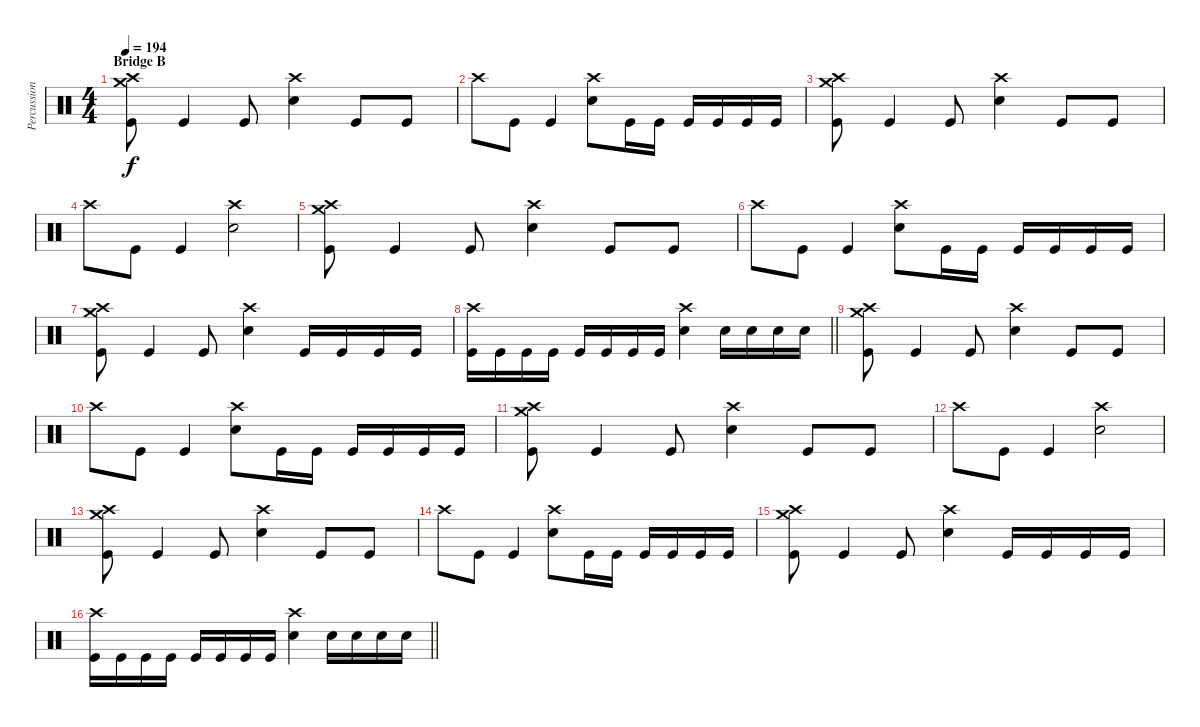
\track ("Percussion" "Percussion") {instrument percussion}
\staff {score}
\articulation defaults
\ts (4 4)
\section ("" "Bridge B")
\tempo 194
\clef neutral
\ks c
("Crash high (hit)" "Crash medium (hit)" "Kick (hit)").8{dy f} "Kick (hit)".4 "Kick (hit)".8 ("Crash high (hit)" "Electric Snare (hit)").4 "Kick (hit)".8 "Kick (hit)".8 |
"Crash high (hit)".8 "Kick (hit)".8 "Kick (hit)".4 ("Crash high (hit)" "Electric Snare (hit)").8 "Kick (hit)".16 "Kick (hit)".16 "Kick (hit)".16 "Kick (hit)".16 "Kick (hit)".16 "Kick (hit)".16 |
("Crash high (hit)" "Crash medium (hit)" "Kick (hit)").8 "Kick (hit)".4 "Kick (hit)".8 ("Crash high (hit)" "Electric Snare (hit)").4 "Kick (hit)".8 "Kick (hit)".8 |
"Crash high (hit)".8 "Kick (hit)".8 "Kick (hit)".4 ("Crash high (hit)" "Electric Snare (hit)").2 |
("Crash high (hit)" "Crash medium (hit)" "Kick (hit)").8 "Kick (hit)".4 "Kick (hit)".8 ("Crash high (hit)" "Electric Snare (hit)").4 "Kick (hit)".8 "Kick (hit)".8 |
"Crash high (hit)".8 "Kick (hit)".8 "Kick (hit)".4 ("Crash high (hit)" "Electric Snare (hit)").8 "Kick (hit)".16 "Kick (hit)".16 "Kick (hit)".16 "Kick (hit)".16 "Kick (hit)".16 "Kick (hit)".16 |
("Crash high (hit)" "Crash medium (hit)" "Kick (hit)").8 "Kick (hit)".4 "Kick (hit)".8 ("Crash high (hit)" "Electric Snare (hit)").4 "Kick (hit)".16 "Kick (hit)".16 "Kick (hit)".16 "Kick (hit)".16 |
\barLineRight lightlight
("Crash high (hit)" "Kick (hit)").16 "Kick (hit)".16 "Kick (hit)".16 "Kick (hit)".16 "Kick (hit)".16 "Kick (hit)".16 "Kick (hit)".16 "Kick (hit)".16 ("Crash high (hit)" "Electric Snare (hit)").4 "Electric Snare (hit)".16 "Electric Snare (hit)".16 "Electric Snare (hit)".16 "Electric Snare (hit)".16 |
("Crash high (hit)" "Crash medium (hit)" "Kick (hit)").8 "Kick (hit)".4 "Kick (hit)".8 ("Crash high (hit)" "Electric Snare (hit)").4 "Kick (hit)".8 "Kick (hit)".8 |
"Crash high (hit)".8 "Kick (hit)".8 "Kick (hit)".4 ("Crash high (hit)" "Electric Snare (hit)").8 "Kick (hit)".16 "Kick (hit)".16 "Kick (hit)".16 "Kick (hit)".16 "Kick (hit)".16 "Kick (hit)".16 |
("Crash high (hit)" "Crash medium (hit)" "Kick (hit)").8 "Kick (hit)".4 "Kick (hit)".8 ("Crash high (hit)" "Electric Snare (hit)").4 "Kick (hit)".8 "Kick (hit)".8 |
"Crash high (hit)".8 "Kick (hit)".8 "Kick (hit)".4 ("Crash high (hit)" "Electric Snare (hit)").2 |
("Crash high (hit)" "Crash medium (hit)" "Kick (hit)").8 "Kick (hit)".4 "Kick (hit)".8 ("Crash high (hit)" "Electric Snare (hit)").4 "Kick (hit)".8 "Kick (hit)".8 |
"Crash high (hit)".8 "Kick (hit)".8 "Kick (hit)".4 ("Crash high (hit)" "Electric Snare (hit)").8 "Kick (hit)".16 "Kick (hit)".16 "Kick (hit)".16 "Kick (hit)".16 "Kick (hit)".16 "Kick (hit)".16 |
("Crash high (hit)" "Crash medium (hit)" "Kick (hit)").8 "Kick (hit)".4 "Kick (hit)".8 ("Crash high (hit)" "Electric Snare (hit)").4 "Kick (hit)".16 "Kick (hit)".16 "Kick (hit)".16 "Kick (hit)".16 |
\barLineRight lightlight
("Crash high (hit)" "Kick (hit)").16 "Kick (hit)".16 "Kick (hit)".16 "Kick (hit)".16 "Kick (hit)".16 "Kick (hit)".16 "Kick (hit)".16 "Kick (hit)".16 ("Crash high (hit)" "Electric Snare (hit)").4 "Electric Snare (hit)".16 "Electric Snare (hit)".16 "Electric Snare (hit)".16 "Electric Snare (hit)".16
